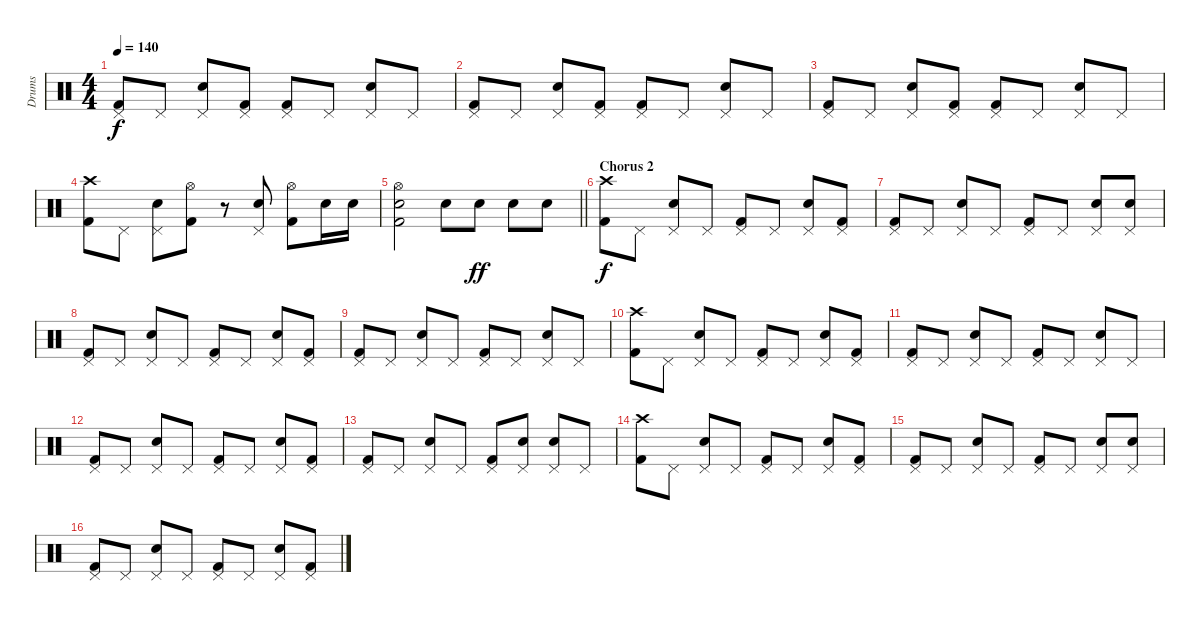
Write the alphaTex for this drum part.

\track ("Drums" "Drums") {instrument percussion}
\staff {score}
\articulation defaults
\ts (4 4)
\tempo 140
\clef neutral
\ks c
("Pedal Hi-Hat (hit)" "Kick (hit) 2").8{dy f} "Pedal Hi-Hat (hit)".8 ("Pedal Hi-Hat (hit)" "Electric Snare (hit)").8 ("Pedal Hi-Hat (hit)" "Kick (hit) 2").8 ("Pedal Hi-Hat (hit)" "Kick (hit) 2").8 "Pedal Hi-Hat (hit)".8 ("Pedal Hi-Hat (hit)" "Electric Snare (hit)").8 "Pedal Hi-Hat (hit)".8 |
("Pedal Hi-Hat (hit)" "Kick (hit) 2").8 "Pedal Hi-Hat (hit)".8 ("Pedal Hi-Hat (hit)" "Electric Snare (hit)").8 ("Pedal Hi-Hat (hit)" "Kick (hit) 2").8 ("Pedal Hi-Hat (hit)" "Kick (hit) 2").8 "Pedal Hi-Hat (hit)".8 ("Pedal Hi-Hat (hit)" "Electric Snare (hit)").8 "Pedal Hi-Hat (hit)".8 |
("Pedal Hi-Hat (hit)" "Kick (hit) 2").8 "Pedal Hi-Hat (hit)".8 ("Pedal Hi-Hat (hit)" "Electric Snare (hit)").8 ("Pedal Hi-Hat (hit)" "Kick (hit) 2").8 ("Pedal Hi-Hat (hit)" "Kick (hit) 2").8 "Pedal Hi-Hat (hit)".8 ("Pedal Hi-Hat (hit)" "Electric Snare (hit)").8 "Pedal Hi-Hat (hit)".8 |
("Crash high (hit)" "Kick (hit) 2").8 "Pedal Hi-Hat (hit)".8 ("Pedal Hi-Hat (hit)" "Electric Snare (hit)").8 ("Hi-Hat (open)" "Kick (hit) 2").8 r.8 ("Pedal Hi-Hat (hit)" "Electric Snare (hit)").8 ("Hi-Hat (open)" "Kick (hit) 2").8 "Electric Snare (hit)".16 "Electric Snare (hit)".16 |
\barLineRight lightlight
("Hi-Hat (open)" "Electric Snare (hit)" "Kick (hit) 2").2 "Electric Snare (hit)".8 "Electric Snare (hit)".8{dy ff} "Electric Snare (hit)".8 "Electric Snare (hit)".8 |
\section ("" "Chorus 2")
("Crash high (hit)" "Kick (hit) 2").8{dy f} "Pedal Hi-Hat (hit)".8 ("Pedal Hi-Hat (hit)" "Electric Snare (hit)").8 "Pedal Hi-Hat (hit)".8 ("Pedal Hi-Hat (hit)" "Kick (hit) 2").8 "Pedal Hi-Hat (hit)".8 ("Pedal Hi-Hat (hit)" "Electric Snare (hit)").8 ("Pedal Hi-Hat (hit)" "Kick (hit) 2").8 |
("Pedal Hi-Hat (hit)" "Kick (hit) 2").8 "Pedal Hi-Hat (hit)".8 ("Pedal Hi-Hat (hit)" "Electric Snare (hit)").8 "Pedal Hi-Hat (hit)".8 ("Pedal Hi-Hat (hit)" "Kick (hit) 2").8 "Pedal Hi-Hat (hit)".8 ("Pedal Hi-Hat (hit)" "Electric Snare (hit)").8 ("Pedal Hi-Hat (hit)" "Electric Snare (hit)").8 |
("Pedal Hi-Hat (hit)" "Kick (hit) 2").8 "Pedal Hi-Hat (hit)".8 ("Pedal Hi-Hat (hit)" "Electric Snare (hit)").8 "Pedal Hi-Hat (hit)".8 ("Pedal Hi-Hat (hit)" "Kick (hit) 2").8 "Pedal Hi-Hat (hit)".8 ("Pedal Hi-Hat (hit)" "Electric Snare (hit)").8 ("Pedal Hi-Hat (hit)" "Kick (hit) 2").8 |
("Pedal Hi-Hat (hit)" "Kick (hit) 2").8 "Pedal Hi-Hat (hit)".8 ("Pedal Hi-Hat (hit)" "Electric Snare (hit)").8 "Pedal Hi-Hat (hit)".8 ("Pedal Hi-Hat (hit)" "Kick (hit) 2").8 "Pedal Hi-Hat (hit)".8 ("Pedal Hi-Hat (hit)" "Electric Snare (hit)").8 "Pedal Hi-Hat (hit)".8 |
("Crash high (hit)" "Kick (hit) 2").8 "Pedal Hi-Hat (hit)".8 ("Pedal Hi-Hat (hit)" "Electric Snare (hit)").8 "Pedal Hi-Hat (hit)".8 ("Pedal Hi-Hat (hit)" "Kick (hit) 2").8 "Pedal Hi-Hat (hit)".8 ("Pedal Hi-Hat (hit)" "Electric Snare (hit)").8 ("Pedal Hi-Hat (hit)" "Kick (hit) 2").8 |
("Pedal Hi-Hat (hit)" "Kick (hit) 2").8 "Pedal Hi-Hat (hit)".8 ("Pedal Hi-Hat (hit)" "Electric Snare (hit)").8 "Pedal Hi-Hat (hit)".8 ("Pedal Hi-Hat (hit)" "Kick (hit) 2").8 "Pedal Hi-Hat (hit)".8 ("Pedal Hi-Hat (hit)" "Electric Snare (hit)").8 "Pedal Hi-Hat (hit)".8 |
("Pedal Hi-Hat (hit)" "Kick (hit) 2").8 "Pedal Hi-Hat (hit)".8 ("Pedal Hi-Hat (hit)" "Electric Snare (hit)").8 "Pedal Hi-Hat (hit)".8 ("Pedal Hi-Hat (hit)" "Kick (hit) 2").8 "Pedal Hi-Hat (hit)".8 ("Pedal Hi-Hat (hit)" "Electric Snare (hit)").8 ("Pedal Hi-Hat (hit)" "Kick (hit) 2").8 |
("Pedal Hi-Hat (hit)" "Kick (hit) 2").8 "Pedal Hi-Hat (hit)".8 ("Pedal Hi-Hat (hit)" "Electric Snare (hit)").8 "Pedal Hi-Hat (hit)".8 ("Pedal Hi-Hat (hit)" "Kick (hit) 2").8 ("Pedal Hi-Hat (hit)" "Electric Snare (hit)").8 ("Pedal Hi-Hat (hit)" "Electric Snare (hit)").8 "Pedal Hi-Hat (hit)".8 |
("Crash high (hit)" "Kick (hit) 2").8 "Pedal Hi-Hat (hit)".8 ("Pedal Hi-Hat (hit)" "Electric Snare (hit)").8 "Pedal Hi-Hat (hit)".8 ("Pedal Hi-Hat (hit)" "Kick (hit) 2").8 "Pedal Hi-Hat (hit)".8 ("Pedal Hi-Hat (hit)" "Electric Snare (hit)").8 ("Pedal Hi-Hat (hit)" "Kick (hit) 2").8 |
("Pedal Hi-Hat (hit)" "Kick (hit) 2").8 "Pedal Hi-Hat (hit)".8 ("Pedal Hi-Hat (hit)" "Electric Snare (hit)").8 "Pedal Hi-Hat (hit)".8 ("Pedal Hi-Hat (hit)" "Kick (hit) 2").8 "Pedal Hi-Hat (hit)".8 ("Pedal Hi-Hat (hit)" "Electric Snare (hit)").8 ("Pedal Hi-Hat (hit)" "Electric Snare (hit)").8 |
("Pedal Hi-Hat (hit)" "Kick (hit) 2").8 "Pedal Hi-Hat (hit)".8 ("Pedal Hi-Hat (hit)" "Electric Snare (hit)").8 "Pedal Hi-Hat (hit)".8 ("Pedal Hi-Hat (hit)" "Kick (hit) 2").8 "Pedal Hi-Hat (hit)".8 ("Pedal Hi-Hat (hit)" "Electric Snare (hit)").8 ("Pedal Hi-Hat (hit)" "Kick (hit) 2").8
